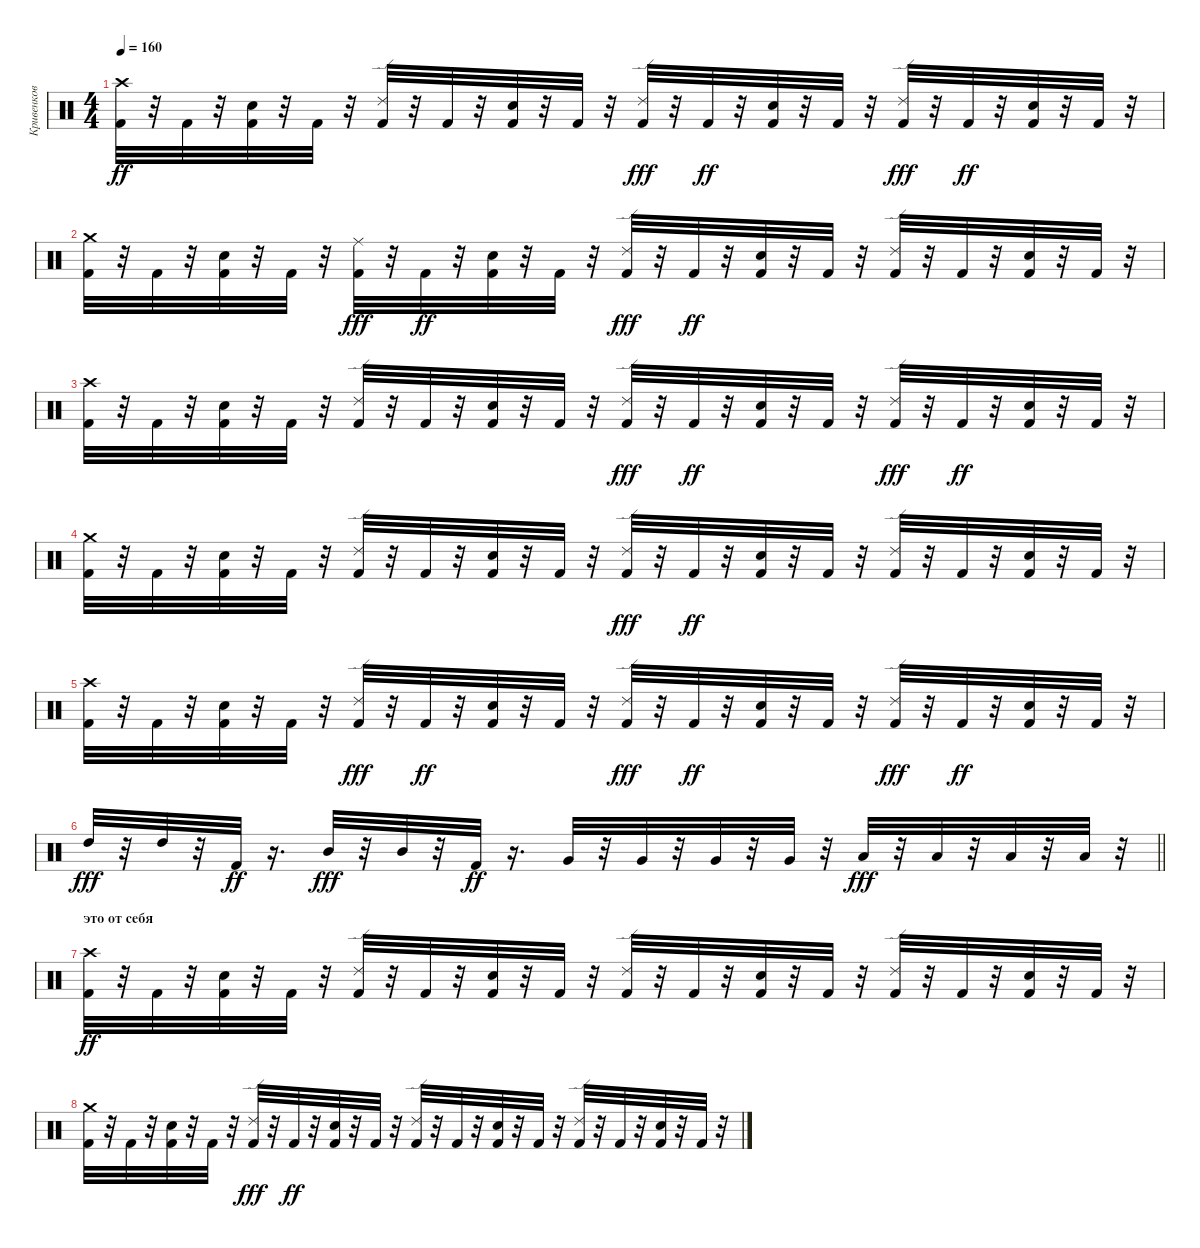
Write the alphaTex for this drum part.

\track ("Кривенков" "Кривенков") {instrument percussion}
\staff {score}
\articulation defaults
\ts (4 4)
\tempo 160
\clef neutral
\ks c
("Kick (hit) 2" "Crash high (hit)").32{dy ff} r.32 "Kick (hit) 2".32 r.32 ("Kick (hit) 2" "Electric Snare (hit)").32 r.32 "Kick (hit) 2".32 r.32 ("Ride (edge) 2" "Kick (hit) 2").32 r.32 "Kick (hit) 2".32 r.32 ("Electric Snare (hit)" "Kick (hit) 2").32 r.32 "Kick (hit) 2".32 r.32 ("Kick (hit) 2" "Ride (edge) 2").32{dy fff} r.32 "Kick (hit) 2".32{dy ff} r.32 ("Kick (hit) 2" "Electric Snare (hit)").32 r.32 "Kick (hit) 2".32 r.32 ("Kick (hit) 2" "Ride (edge) 2").32{dy fff} r.32 "Kick (hit) 2".32{dy ff} r.32 ("Electric Snare (hit)" "Kick (hit) 2").32 r.32 "Kick (hit) 2".32 r.32 |
("Crash medium (hit)" "Kick (hit) 2").32 r.32 "Kick (hit) 2".32 r.32 ("Kick (hit) 2" "Electric Snare (hit)").32 r.32 "Kick (hit) 2".32 r.32 ("Kick (hit) 2" "Ride (middle)").32{dy fff} r.32 "Kick (hit) 2".32{dy ff} r.32 ("Electric Snare (hit)" "Kick (hit) 2").32 r.32 "Kick (hit) 2".32 r.32 ("Kick (hit) 2" "Ride (edge) 2").32{dy fff} r.32 "Kick (hit) 2".32{dy ff} r.32 ("Electric Snare (hit)" "Kick (hit) 2").32 r.32 "Kick (hit) 2".32 r.32 ("Ride (edge) 2" "Kick (hit) 2").32 r.32 "Kick (hit) 2".32 r.32 ("Kick (hit) 2" "Electric Snare (hit)").32 r.32 "Kick (hit) 2".32 r.32 |
("Crash high (hit)" "Kick (hit) 2").32 r.32 "Kick (hit) 2".32 r.32 ("Electric Snare (hit)" "Kick (hit) 2").32 r.32 "Kick (hit) 2".32 r.32 ("Ride (edge) 2" "Kick (hit) 2").32 r.32 "Kick (hit) 2".32 r.32 ("Kick (hit) 2" "Electric Snare (hit)").32 r.32 "Kick (hit) 2".32 r.32 ("Kick (hit) 2" "Ride (edge) 2").32{dy fff} r.32 "Kick (hit) 2".32{dy ff} r.32 ("Kick (hit) 2" "Electric Snare (hit)").32 r.32 "Kick (hit) 2".32 r.32 ("Kick (hit) 2" "Ride (edge) 2").32{dy fff} r.32 "Kick (hit) 2".32{dy ff} r.32 ("Kick (hit) 2" "Electric Snare (hit)").32 r.32 "Kick (hit) 2".32 r.32 |
("Crash medium (hit)" "Kick (hit) 2").32 r.32 "Kick (hit) 2".32 r.32 ("Kick (hit) 2" "Electric Snare (hit)").32 r.32 "Kick (hit) 2".32 r.32 ("Ride (edge) 2" "Kick (hit) 2").32 r.32 "Kick (hit) 2".32 r.32 ("Electric Snare (hit)" "Kick (hit) 2").32 r.32 "Kick (hit) 2".32 r.32 ("Kick (hit) 2" "Ride (edge) 2").32{dy fff} r.32 "Kick (hit) 2".32{dy ff} r.32 ("Kick (hit) 2" "Electric Snare (hit)").32 r.32 "Kick (hit) 2".32 r.32 ("Ride (edge) 2" "Kick (hit) 2").32 r.32 "Kick (hit) 2".32 r.32 ("Kick (hit) 2" "Electric Snare (hit)").32 r.32 "Kick (hit) 2".32 r.32 |
("Kick (hit) 2" "Crash high (hit)").32 r.32 "Kick (hit) 2".32 r.32 ("Electric Snare (hit)" "Kick (hit) 2").32 r.32 "Kick (hit) 2".32 r.32 ("Kick (hit) 2" "Ride (edge) 2").32{dy fff} r.32 "Kick (hit) 2".32{dy ff} r.32 ("Electric Snare (hit)" "Kick (hit) 2").32 r.32 "Kick (hit) 2".32 r.32 ("Kick (hit) 2" "Ride (edge) 2").32{dy fff} r.32 "Kick (hit) 2".32{dy ff} r.32 ("Kick (hit) 2" "Electric Snare (hit)").32 r.32 "Kick (hit) 2".32 r.32 ("Kick (hit) 2" "Ride (edge) 2").32{dy fff} r.32 "Kick (hit) 2".32{dy ff} r.32 ("Electric Snare (hit)" "Kick (hit) 2").32 r.32 "Kick (hit) 2".32 r.32 |
\barLineRight lightlight "High Tom (hit)".32{dy fff}
r.32 "High Tom (hit)".32 r.32 "Kick (hit) 2".32{dy ff} r.16{d} "Mid Tom (hit)".32{dy fff} r.32 "Mid Tom (hit)".32 r.32 "Kick (hit) 2".32{dy ff} r.16{d} "Very Low Tom (hit)".32 r.32 "Very Low Tom (hit)".32 r.32 "Very Low Tom (hit)".32 r.32 "Very Low Tom (hit)".32 r.32 "Low Tom (hit)".32{dy fff} r.32 "Low Tom (hit)".32 r.32 "Low Tom (hit)".32 r.32 "Low Tom (hit)".32 r.32 |
\section ("" "это от себя")
("Crash high (hit)" "Kick (hit) 2").32{dy ff} r.32 "Kick (hit) 2".32 r.32 ("Kick (hit) 2" "Electric Snare (hit)").32 r.32 "Kick (hit) 2".32 r.32 ("Ride (edge) 2" "Kick (hit) 2").32 r.32 "Kick (hit) 2".32 r.32 ("Electric Snare (hit)" "Kick (hit) 2").32 r.32 "Kick (hit) 2".32 r.32 ("Ride (edge) 2" "Kick (hit) 2").32 r.32 "Kick (hit) 2".32 r.32 ("Kick (hit) 2" "Electric Snare (hit)").32 r.32 "Kick (hit) 2".32 r.32 ("Ride (edge) 2" "Kick (hit) 2").32 r.32 "Kick (hit) 2".32 r.32 ("Electric Snare (hit)" "Kick (hit) 2").32 r.32 "Kick (hit) 2".32 r.32 |
("Kick (hit) 2" "Crash medium (hit)").32 r.32 "Kick (hit) 2".32 r.32 ("Electric Snare (hit)" "Kick (hit) 2").32 r.32 "Kick (hit) 2".32 r.32 ("Kick (hit) 2" "Ride (edge) 2").32{dy fff} r.32 "Kick (hit) 2".32{dy ff} r.32 ("Kick (hit) 2" "Electric Snare (hit)").32 r.32 "Kick (hit) 2".32 r.32 ("Ride (edge) 2" "Kick (hit) 2").32 r.32 "Kick (hit) 2".32 r.32 ("Electric Snare (hit)" "Kick (hit) 2").32 r.32 "Kick (hit) 2".32 r.32 ("Ride (edge) 2" "Kick (hit) 2").32 r.32 "Kick (hit) 2".32 r.32 ("Electric Snare (hit)" "Kick (hit) 2").32 r.32 "Kick (hit) 2".32 r.32
